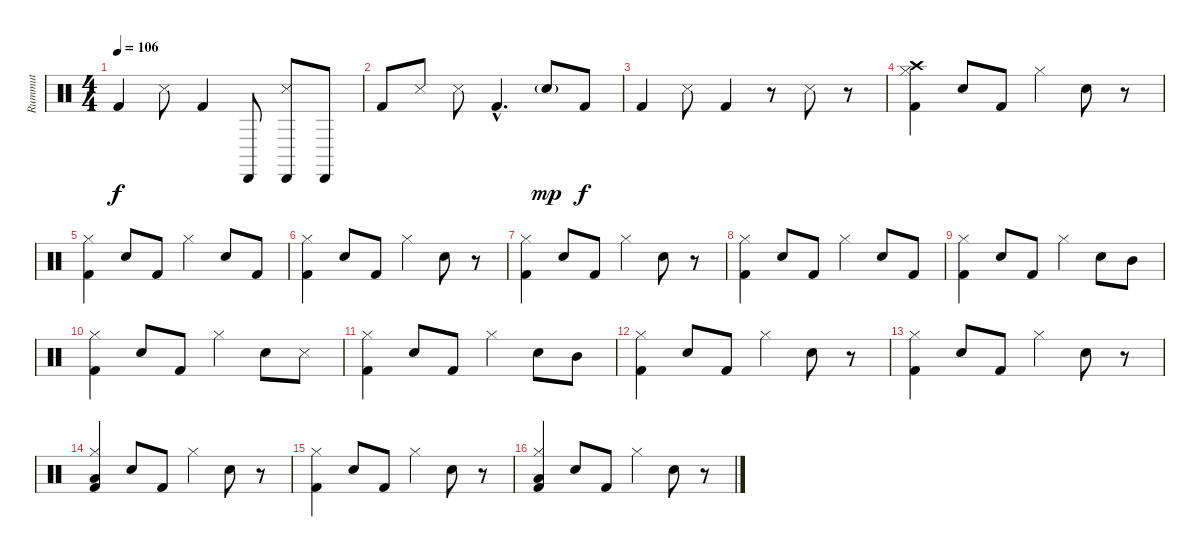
\track ("Rummut" "Rummut") {instrument percussion}
\staff {score}
\articulation defaults
\ts (4 4)
\tempo 106
\clef neutral
\ks c "Kick (hit) 2".4{dy f} "Snare (side stick) 3".8 "Kick (hit) 2".4 "Cabasa (hit)".8
("Snare (side stick) 3" "Cabasa (hit)").8 "Cabasa (hit)".8 |
"Kick (hit) 2".8 "Snare (side stick) 3".8 "Snare (side stick) 3".8 "Kick (hit) 2"{hac}.4{d} "Snare (hit) 2"{g}.8{dy mp} "Kick (hit) 2".8{dy f} |
"Kick (hit) 2".4 "Snare (side stick) 3".8 "Kick (hit) 2".4 r.8 "Snare (side stick) 3".8 r.8 |
("Crash high (hit)" "Hi-Hat (closed)" "Kick (hit) 2").4 "Electric Snare (hit)".8 "Kick (hit) 2".8 "Hi-Hat (closed)".4 "Electric Snare (hit)".8 r.8 |
("Hi-Hat (closed)" "Kick (hit) 2").4 "Electric Snare (hit)".8 "Kick (hit) 2".8 "Hi-Hat (closed)".4 "Electric Snare (hit)".8 "Kick (hit) 2".8 |
("Hi-Hat (closed)" "Kick (hit) 2").4 "Electric Snare (hit)".8 "Kick (hit) 2".8 "Hi-Hat (closed)".4 "Electric Snare (hit)".8 r.8 |
("Hi-Hat (closed)" "Kick (hit) 2").4 "Electric Snare (hit)".8 "Kick (hit) 2".8 "Hi-Hat (closed)".4 "Electric Snare (hit)".8 r.8 |
("Hi-Hat (closed)" "Kick (hit) 2").4 "Electric Snare (hit)".8 "Kick (hit) 2".8 "Hi-Hat (closed)".4 "Electric Snare (hit)".8 "Kick (hit) 2".8 |
("Hi-Hat (closed)" "Kick (hit) 2").4 "Electric Snare (hit)".8 "Kick (hit) 2".8 "Hi-Hat (closed)".4 "Electric Snare (hit)".8 "Mid Tom (hit)".8 |
("Hi-Hat (closed)" "Kick (hit) 2").4 "Electric Snare (hit)".8 "Kick (hit) 2".8 "Hi-Hat (closed)".4 "Electric Snare (hit)".8 "Snare (side stick) 3".8 |
("Hi-Hat (closed)" "Kick (hit) 2").4 "Electric Snare (hit)".8 "Kick (hit) 2".8 "Hi-Hat (closed)".4 "Electric Snare (hit)".8 "Mid Tom (hit)".8 |
("Hi-Hat (closed)" "Kick (hit) 2").4 "Electric Snare (hit)".8 "Kick (hit) 2".8 "Hi-Hat (closed)".4 "Electric Snare (hit)".8 r.8 |
("Hi-Hat (closed)" "Kick (hit) 2").4 "Electric Snare (hit)".8 "Kick (hit) 2".8 "Hi-Hat (closed)".4 "Electric Snare (hit)".8 r.8 |
("Hi-Hat (closed)" "Low Tom (hit)" "Kick (hit) 2").4 "Electric Snare (hit)".8 "Kick (hit) 2".8 "Hi-Hat (closed)".4 "Electric Snare (hit)".8 r.8 |
("Hi-Hat (closed)" "Kick (hit) 2").4 "Electric Snare (hit)".8 "Kick (hit) 2".8 "Hi-Hat (closed)".4 "Electric Snare (hit)".8 r.8 |
("Hi-Hat (closed)" "Low Tom (hit)" "Kick (hit) 2").4 "Electric Snare (hit)".8 "Kick (hit) 2".8 "Hi-Hat (closed)".4 "Electric Snare (hit)".8 r.8
